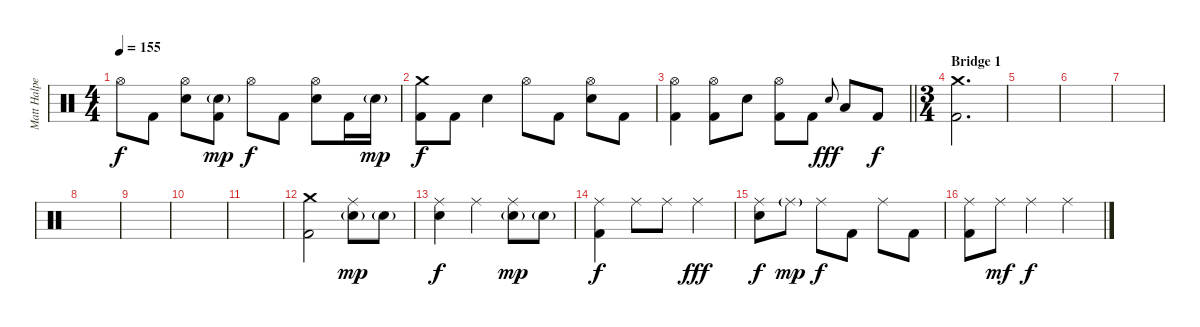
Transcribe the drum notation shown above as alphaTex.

\track ("Matt Halpern - Drums" "Matt Halpe") {instrument percussion}
\staff {score}
\articulation defaults
\ts (4 4)
\tempo 155
\clef neutral
\ks c "Hi-Hat (open)".8{dy f} "Kick (hit) 2".8
("Hi-Hat (open)" "Electric Snare (hit)").8 ("Electric Snare (hit)"{g} "Kick (hit) 2").8{dy mp} "Hi-Hat (open)".8{dy f} "Kick (hit) 2".8 ("Hi-Hat (open)" "Electric Snare (hit)").8 "Kick (hit) 2".16 "Electric Snare (hit)"{g}.16{dy mp} |
("Crash medium (hit)" "Kick (hit) 2").8{dy f} "Kick (hit) 2".8 "Electric Snare (hit)".4 "Hi-Hat (open)".8 "Kick (hit) 2".8 ("Hi-Hat (open)" "Electric Snare (hit)").8 "Kick (hit) 2".8 |
\barLineRight lightlight
("Hi-Hat (open)" "Kick (hit) 2").4 ("Hi-Hat (open)" "Kick (hit) 2").8 "Electric Snare (hit)".8 ("Hi-Hat (open)" "Kick (hit) 2").8 "Kick (hit) 2".8 "Electric Snare (hit)".8{gr onbeat dy fff} "Low Floor Tom (hit)".8 "Kick (hit) 2".8{dy f} |
\ts (3 4)
\section ("" "Bridge 1")
("Crash medium (hit)" "Kick (hit) 2").2{d} |
|
|
|
|
|
|
|
("Crash medium (hit)" "Kick (hit) 2").2 ("Ride (middle)" "Electric Snare (hit)"{g}).8{dy mp} "Electric Snare (hit)"{g}.8 |
("Ride (middle)" "Electric Snare (hit)").4{dy f} "Ride (middle)".4 ("Ride (middle)" "Electric Snare (hit)"{g}).8{dy mp} "Electric Snare (hit)"{g}.8 |
("Ride (middle)" "Kick (hit) 2").4{dy f} "Ride (middle)".8 "Ride (middle)".8 "Ride (middle)".4{dy fff} |
("Ride (middle)" "Electric Snare (hit)").8{dy f} "Ride (middle)"{g}.8{dy mp} "Ride (middle)".8{dy f} "Kick (hit) 2".8 "Ride (middle)".8 "Kick (hit) 2".8 |
("Ride (middle)" "Kick (hit) 2").8 "Ride (middle)".8{dy mf} "Ride (middle)".4{dy f} "Ride (middle)".4
